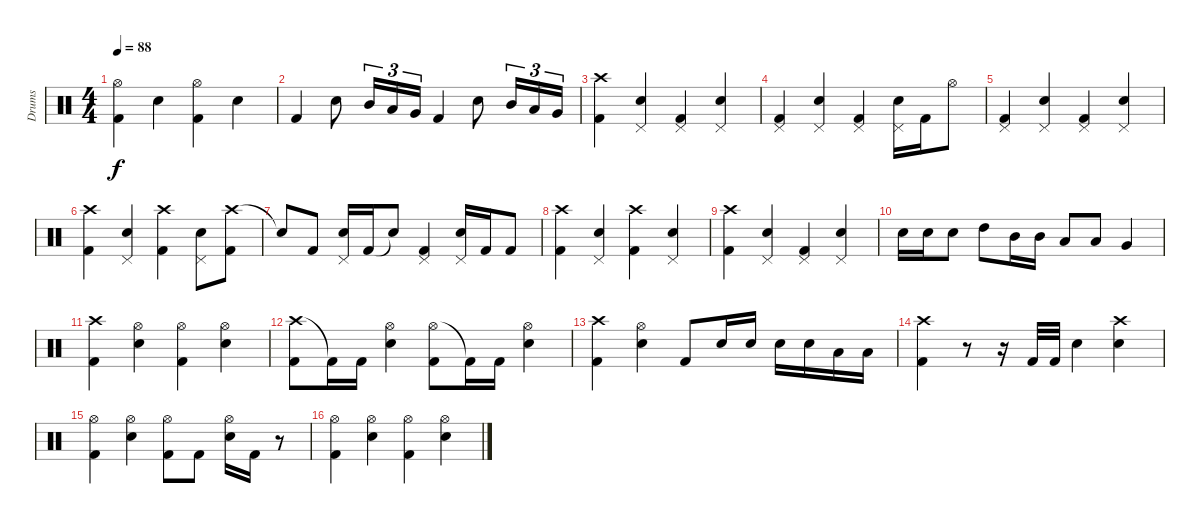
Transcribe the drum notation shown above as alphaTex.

\track ("Drums" "Drums") {instrument percussion}
\staff {score}
\articulation defaults
\ts (4 4)
\tempo 88
\clef neutral
\ks c
("Hi-Hat (open)" "Kick (hit) 2").4{dy f} "Electric Snare (hit)".4 ("Hi-Hat (open)" "Kick (hit) 2").4 "Electric Snare (hit)".4 |
"Kick (hit) 2".4 "Electric Snare (hit)".8 "Mid Tom (hit)".16{tu (3 2)} "Low Tom (hit)".16{tu (3 2)} "Very Low Tom (hit)".16{tu (3 2)} "Kick (hit) 2".4 "Electric Snare (hit)".8 "Mid Tom (hit)".16{tu (3 2)} "Low Tom (hit)".16{tu (3 2)} "Very Low Tom (hit)".16{tu (3 2)} |
("Crash high (hit)" "Kick (hit) 2").4 ("Pedal Hi-Hat (hit)" "Electric Snare (hit)").4 ("Pedal Hi-Hat (hit)" "Kick (hit) 2").4 ("Pedal Hi-Hat (hit)" "Electric Snare (hit)").4 |
("Pedal Hi-Hat (hit)" "Kick (hit) 2").4 ("Pedal Hi-Hat (hit)" "Electric Snare (hit)").4 ("Pedal Hi-Hat (hit)" "Kick (hit) 2").4 ("Pedal Hi-Hat (hit)" "Electric Snare (hit)").16 "Kick (hit) 2".16 "Hi-Hat (open)".8 |
("Pedal Hi-Hat (hit)" "Kick (hit) 2").4 ("Pedal Hi-Hat (hit)" "Electric Snare (hit)").4 ("Pedal Hi-Hat (hit)" "Kick (hit) 2").4 ("Pedal Hi-Hat (hit)" "Electric Snare (hit)").4 |
("Crash high (hit)" "Kick (hit) 2").4 ("Pedal Hi-Hat (hit)" "Electric Snare (hit)").4 ("Crash high (hit)" "Kick (hit) 2").4 ("Pedal Hi-Hat (hit)" "Electric Snare (hit)").8 ("Crash high (hit)" "Kick (hit) 2").8 |
"Snare (hit)"{t}.8 "Kick (hit) 2".8 ("Pedal Hi-Hat (hit)" "Electric Snare (hit)").16 "Kick (hit) 2".16 "Snare (hit)"{t}.8 ("Pedal Hi-Hat (hit)" "Kick (hit) 2").4 ("Pedal Hi-Hat (hit)" "Electric Snare (hit)").16 "Kick (hit) 2".16 "Kick (hit) 2".8 |
("Crash high (hit)" "Kick (hit) 2").4 ("Pedal Hi-Hat (hit)" "Electric Snare (hit)").4 ("Crash high (hit)" "Kick (hit) 2").4 ("Pedal Hi-Hat (hit)" "Electric Snare (hit)").4 |
("Crash high (hit)" "Kick (hit) 2").4 ("Pedal Hi-Hat (hit)" "Electric Snare (hit)").4 ("Pedal Hi-Hat (hit)" "Kick (hit) 2").4 ("Pedal Hi-Hat (hit)" "Electric Snare (hit)").4 |
"Electric Snare (hit)".16 "Electric Snare (hit)".16 "Electric Snare (hit)".8 "High Tom (hit)".8 "Mid Tom (hit)".16 "Mid Tom (hit)".16 "Low Tom (hit)".8 "Low Tom (hit)".8 "Very Low Tom (hit)".4 |
("Crash high (hit)" "Kick (hit) 2").4 ("Hi-Hat (open)" "Electric Snare (hit)").4 ("Hi-Hat (open)" "Kick (hit) 2").4 ("Hi-Hat (open)" "Electric Snare (hit)").4 |
("Crash high (hit)" "Kick (hit) 2").8 "Kick (hit) 2"{t}.16 "Kick (hit) 2".16 ("Hi-Hat (open)" "Electric Snare (hit)").4 ("Hi-Hat (open)" "Kick (hit) 2").8 "Kick (hit) 2"{t}.16 "Kick (hit) 2".16 ("Hi-Hat (open)" "Electric Snare (hit)").4 |
("Crash high (hit)" "Kick (hit) 2").4 ("Hi-Hat (open)" "Electric Snare (hit)").4 "Kick (hit) 2".8 "Electric Snare (hit)".16 "Electric Snare (hit)".16 "Electric Snare (hit)".16 "Electric Snare (hit)".16 "Low Tom (hit)".16 "Low Tom (hit)".16 |
("Crash high (hit)" "Kick (hit) 2").4 r.8 r.16 "Kick (hit) 2".32 "Kick (hit) 2".32 "Electric Snare (hit)".4 ("Crash high (hit)" "Electric Snare (hit)").4 |
("Hi-Hat (open)" "Kick (hit) 2").4 ("Hi-Hat (open)" "Electric Snare (hit)").4 ("Hi-Hat (open)" "Kick (hit) 2").8 "Kick (hit) 2".8 ("Hi-Hat (open)" "Electric Snare (hit)").16 "Kick (hit) 2".16 r.8 |
("Hi-Hat (open)" "Kick (hit) 2").4 ("Hi-Hat (open)" "Electric Snare (hit)").4 ("Hi-Hat (open)" "Kick (hit) 2").4 ("Hi-Hat (open)" "Electric Snare (hit)").4
